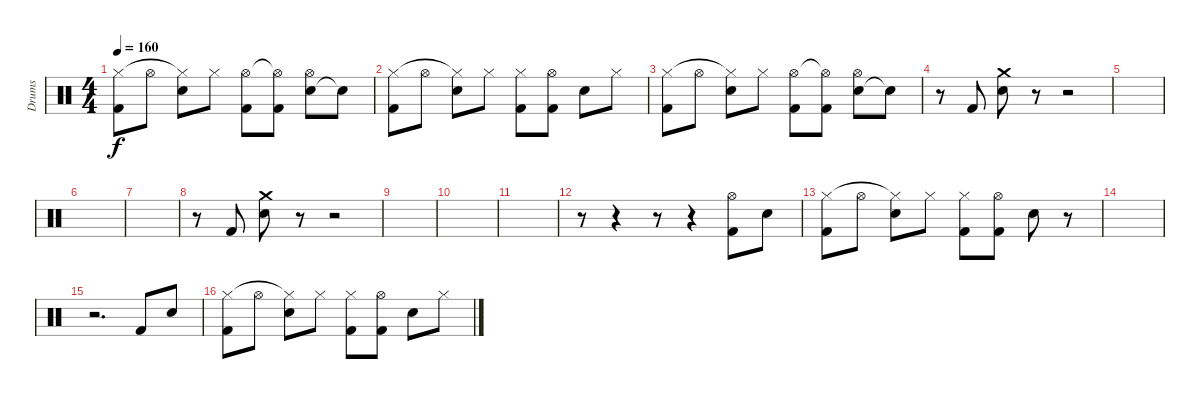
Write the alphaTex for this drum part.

\track ("Drums" "Drums") {instrument percussion}
\staff {score}
\articulation defaults
\ts (4 4)
\tempo 160
\clef neutral
\ks c
("Kick (hit) 2" "Hi-Hat (closed)").8{dy f} "Hi-Hat (open)".8 ("Snare (hit) 2" "Hi-Hat (closed)"{t}).8 "Hi-Hat (closed)".8 ("Kick (hit) 2" "Hi-Hat (open)").8 ("Kick (hit) 2" "Hi-Hat (open)"{t}).8 ("Snare (hit) 2" "Hi-Hat (open)").8 "Snare (hit)"{t}.8 |
("Kick (hit) 2" "Hi-Hat (closed)").8 "Hi-Hat (open)".8 ("Snare (hit) 2" "Hi-Hat (closed)"{t}).8 "Hi-Hat (closed)".8 ("Kick (hit) 2" "Hi-Hat (closed)").8 ("Kick (hit) 2" "Hi-Hat (open)").8 "Snare (hit) 2".8 "Hi-Hat (closed)".8 |
("Kick (hit) 2" "Hi-Hat (closed)").8 "Hi-Hat (open)".8 ("Snare (hit) 2" "Hi-Hat (closed)"{t}).8 "Hi-Hat (closed)".8 ("Kick (hit) 2" "Hi-Hat (open)").8 ("Kick (hit) 2" "Hi-Hat (open)"{t}).8 ("Snare (hit) 2" "Hi-Hat (open)").8 "Snare (hit)"{t}.8 |
r.8 "Kick (hit) 2".8 ("Snare (hit) 2" "Crash medium (hit)").8 r.8 r.2 |
|
|
|
r.8 "Kick (hit) 2".8 ("Snare (hit) 2" "Crash medium (hit)").8 r.8 r.2 |
|
|
|
r.8 r.4 r.8 r.4 ("Kick (hit) 2" "Hi-Hat (open)").8 "Snare (hit) 2".8 |
("Kick (hit) 2" "Hi-Hat (closed)").8 "Hi-Hat (open)".8 ("Snare (hit) 2" "Hi-Hat (closed)"{t}).8 "Hi-Hat (closed)".8 ("Kick (hit) 2" "Hi-Hat (closed)").8 ("Kick (hit) 2" "Hi-Hat (open)").8 "Snare (hit) 2".8 r.8 |
|
r.2{d} "Kick (hit) 2".8 "Snare (hit) 2".8 |
("Kick (hit) 2" "Hi-Hat (closed)").8 "Hi-Hat (open)".8 ("Snare (hit) 2" "Hi-Hat (closed)"{t}).8 "Hi-Hat (closed)".8 ("Kick (hit) 2" "Hi-Hat (closed)").8 ("Kick (hit) 2" "Hi-Hat (open)").8 "Snare (hit) 2".8 "Hi-Hat (closed)".8
